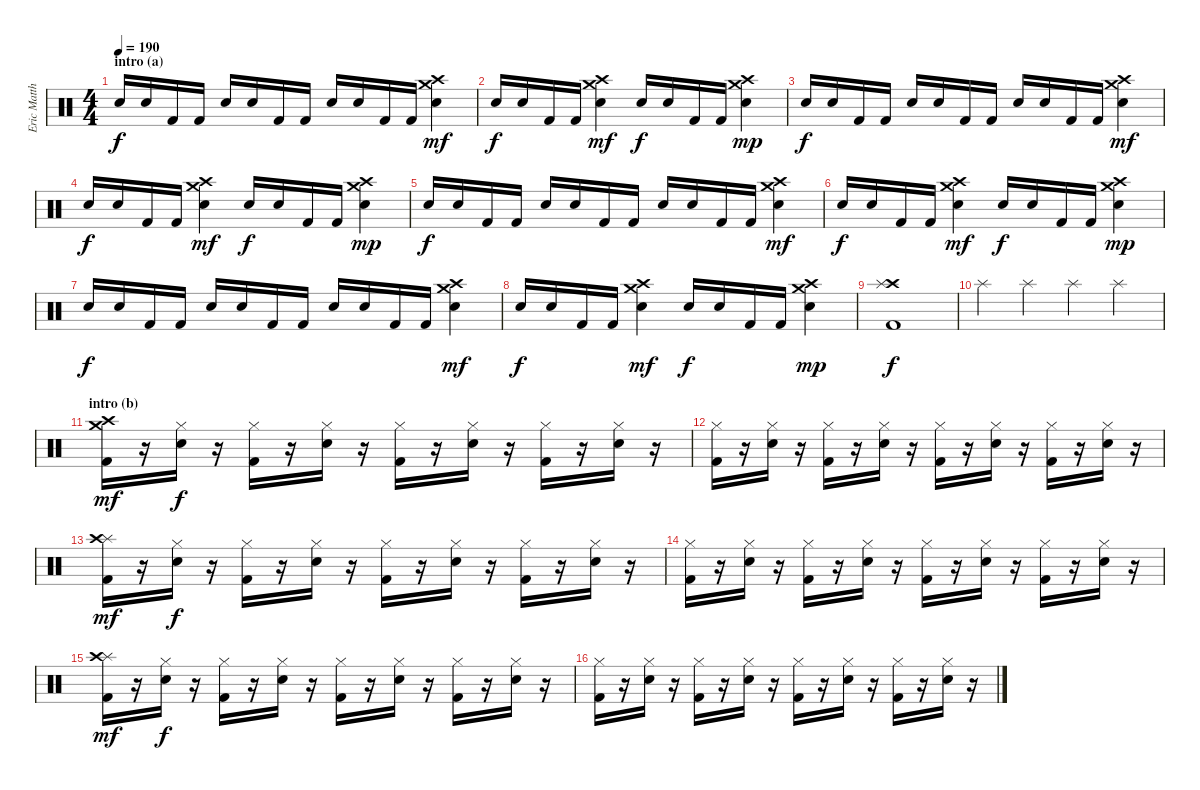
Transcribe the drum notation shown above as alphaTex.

\track ("Eric Matthews (drums)" "Eric Matth") {instrument percussion}
\staff {score}
\articulation defaults
\ts (4 4)
\section ("" "intro (a)")
\tempo 190
\clef neutral
\ks c "Snare (hit) 2".16{dy f} "Snare (hit) 2".16 "Kick (hit) 2".16 "Kick (hit) 2".16 "Snare (hit) 2".16 "Snare (hit) 2".16 "Kick (hit) 2".16 "Kick (hit) 2".16 "Snare (hit) 2".16 "Snare (hit) 2".16 "Kick (hit) 2".16 "Kick (hit) 2".16
("Crash high (hit)" "Crash medium (hit)" "Snare (hit) 2").4{dy mf} |
"Snare (hit) 2".16{dy f} "Snare (hit) 2".16 "Kick (hit) 2".16 "Kick (hit) 2".16 ("Crash high (hit)" "Crash medium (hit)" "Snare (hit) 2").4{dy mf} "Snare (hit) 2".16{dy f} "Snare (hit) 2".16 "Kick (hit) 2".16 "Kick (hit) 2".16 ("Crash high (hit)" "Crash medium (hit)" "Snare (hit) 2").4{dy mp} |
"Snare (hit) 2".16{dy f} "Snare (hit) 2".16 "Kick (hit) 2".16 "Kick (hit) 2".16 "Snare (hit) 2".16 "Snare (hit) 2".16 "Kick (hit) 2".16 "Kick (hit) 2".16 "Snare (hit) 2".16 "Snare (hit) 2".16 "Kick (hit) 2".16 "Kick (hit) 2".16 ("Crash high (hit)" "Crash medium (hit)" "Snare (hit) 2").4{dy mf} |
"Snare (hit) 2".16{dy f} "Snare (hit) 2".16 "Kick (hit) 2".16 "Kick (hit) 2".16 ("Crash high (hit)" "Crash medium (hit)" "Snare (hit) 2").4{dy mf} "Snare (hit) 2".16{dy f} "Snare (hit) 2".16 "Kick (hit) 2".16 "Kick (hit) 2".16 ("Crash high (hit)" "Crash medium (hit)" "Snare (hit) 2").4{dy mp} |
"Snare (hit) 2".16{dy f} "Snare (hit) 2".16 "Kick (hit) 2".16 "Kick (hit) 2".16 "Snare (hit) 2".16 "Snare (hit) 2".16 "Kick (hit) 2".16 "Kick (hit) 2".16 "Snare (hit) 2".16 "Snare (hit) 2".16 "Kick (hit) 2".16 "Kick (hit) 2".16 ("Crash high (hit)" "Crash medium (hit)" "Snare (hit) 2").4{dy mf} |
"Snare (hit) 2".16{dy f} "Snare (hit) 2".16 "Kick (hit) 2".16 "Kick (hit) 2".16 ("Crash high (hit)" "Crash medium (hit)" "Snare (hit) 2").4{dy mf} "Snare (hit) 2".16{dy f} "Snare (hit) 2".16 "Kick (hit) 2".16 "Kick (hit) 2".16 ("Crash high (hit)" "Crash medium (hit)" "Snare (hit) 2").4{dy mp} |
"Snare (hit) 2".16{dy f} "Snare (hit) 2".16 "Kick (hit) 2".16 "Kick (hit) 2".16 "Snare (hit) 2".16 "Snare (hit) 2".16 "Kick (hit) 2".16 "Kick (hit) 2".16 "Snare (hit) 2".16 "Snare (hit) 2".16 "Kick (hit) 2".16 "Kick (hit) 2".16 ("Crash high (hit)" "Crash medium (hit)" "Snare (hit) 2").4{dy mf} |
"Snare (hit) 2".16{dy f} "Snare (hit) 2".16 "Kick (hit) 2".16 "Kick (hit) 2".16 ("Crash high (hit)" "Crash medium (hit)" "Snare (hit) 2").4{dy mf} "Snare (hit) 2".16{dy f} "Snare (hit) 2".16 "Kick (hit) 2".16 "Kick (hit) 2".16 ("Crash high (hit)" "Crash medium (hit)" "Snare (hit) 2").4{dy mp} |
("Crash high (hit)" "Splash (hit)" "Kick (hit) 2").1{dy f} |
"Splash (hit)".4 "Splash (hit)".4 "Splash (hit)".4 "Splash (hit)".4 |
\section ("" "intro (b)")
("Crash high (hit)" "Crash medium (hit)" "Kick (hit) 2").16{dy mf} r.16 ("Hi-Hat (closed)" "Snare (hit) 2").16{dy f} r.16 ("Hi-Hat (closed)" "Kick (hit) 2").16 r.16 ("Hi-Hat (closed)" "Snare (hit) 2").16 r.16 ("Hi-Hat (closed)" "Kick (hit) 2").16 r.16 ("Hi-Hat (closed)" "Snare (hit) 2").16 r.16 ("Hi-Hat (closed)" "Kick (hit) 2").16 r.16 ("Hi-Hat (closed)" "Snare (hit) 2").16 r.16 |
("Hi-Hat (closed)" "Kick (hit) 2").16 r.16 ("Hi-Hat (closed)" "Snare (hit) 2").16 r.16 ("Hi-Hat (closed)" "Kick (hit) 2").16 r.16 ("Hi-Hat (closed)" "Snare (hit) 2").16 r.16 ("Hi-Hat (closed)" "Kick (hit) 2").16 r.16 ("Hi-Hat (closed)" "Snare (hit) 2").16 r.16 ("Hi-Hat (closed)" "Kick (hit) 2").16 r.16 ("Hi-Hat (closed)" "Snare (hit) 2").16 r.16 |
("Splash (hit)" "Crash high (hit)" "Kick (hit) 2").16{dy mf} r.16 ("Hi-Hat (closed)" "Snare (hit) 2").16{dy f} r.16 ("Hi-Hat (closed)" "Kick (hit) 2").16 r.16 ("Hi-Hat (closed)" "Snare (hit) 2").16 r.16 ("Hi-Hat (closed)" "Kick (hit) 2").16 r.16 ("Hi-Hat (closed)" "Snare (hit) 2").16 r.16 ("Hi-Hat (closed)" "Kick (hit) 2").16 r.16 ("Hi-Hat (closed)" "Snare (hit) 2").16 r.16 |
("Hi-Hat (closed)" "Kick (hit) 2").16 r.16 ("Hi-Hat (closed)" "Snare (hit) 2").16 r.16 ("Hi-Hat (closed)" "Kick (hit) 2").16 r.16 ("Hi-Hat (closed)" "Snare (hit) 2").16 r.16 ("Hi-Hat (closed)" "Kick (hit) 2").16 r.16 ("Hi-Hat (closed)" "Snare (hit) 2").16 r.16 ("Hi-Hat (closed)" "Kick (hit) 2").16 r.16 ("Hi-Hat (closed)" "Snare (hit) 2").16 r.16 |
("Splash (hit)" "Crash high (hit)" "Kick (hit) 2").16{dy mf} r.16 ("Hi-Hat (closed)" "Snare (hit) 2").16{dy f} r.16 ("Hi-Hat (closed)" "Kick (hit) 2").16 r.16 ("Hi-Hat (closed)" "Snare (hit) 2").16 r.16 ("Hi-Hat (closed)" "Kick (hit) 2").16 r.16 ("Hi-Hat (closed)" "Snare (hit) 2").16 r.16 ("Hi-Hat (closed)" "Kick (hit) 2").16 r.16 ("Hi-Hat (closed)" "Snare (hit) 2").16 r.16 |
("Hi-Hat (closed)" "Kick (hit) 2").16 r.16 ("Hi-Hat (closed)" "Snare (hit) 2").16 r.16 ("Hi-Hat (closed)" "Kick (hit) 2").16 r.16 ("Hi-Hat (closed)" "Snare (hit) 2").16 r.16 ("Hi-Hat (closed)" "Kick (hit) 2").16 r.16 ("Hi-Hat (closed)" "Snare (hit) 2").16 r.16 ("Hi-Hat (closed)" "Kick (hit) 2").16 r.16 ("Hi-Hat (closed)" "Snare (hit) 2").16 r.16
